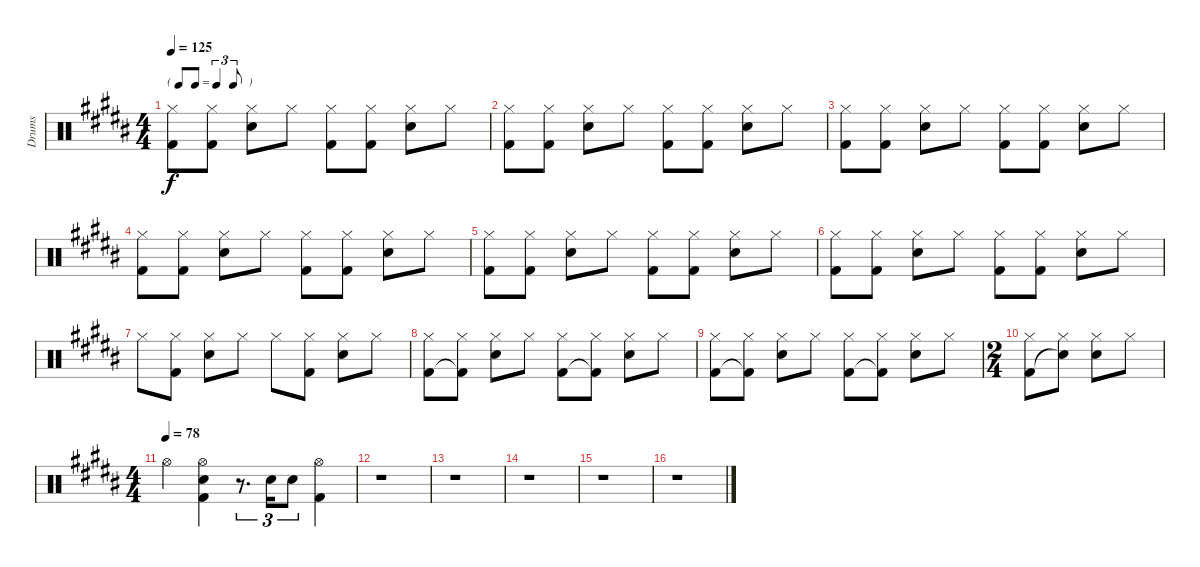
\track ("Drums" "Drums") {instrument percussion}
\staff {score}
\articulation defaults
\ts (4 4)
\tf triplet8th
\tempo 125
\clef neutral
\ks b
("Hi-Hat (closed)" "Kick (hit) 2").8{dy f} ("Hi-Hat (closed)" "Kick (hit) 2").8 ("Hi-Hat (closed)" "Snare (hit) 2").8 "Hi-Hat (closed)".8 ("Hi-Hat (closed)" "Kick (hit) 2").8 ("Hi-Hat (closed)" "Kick (hit) 2").8 ("Hi-Hat (closed)" "Snare (hit) 2").8 "Hi-Hat (closed)".8 |
("Hi-Hat (closed)" "Kick (hit) 2").8 ("Hi-Hat (closed)" "Kick (hit) 2").8 ("Hi-Hat (closed)" "Snare (hit) 2").8 "Hi-Hat (closed)".8 ("Hi-Hat (closed)" "Kick (hit) 2").8 ("Hi-Hat (closed)" "Kick (hit) 2").8 ("Hi-Hat (closed)" "Snare (hit) 2").8 "Hi-Hat (closed)".8 |
("Hi-Hat (closed)" "Kick (hit) 2").8 ("Hi-Hat (closed)" "Kick (hit) 2").8 ("Hi-Hat (closed)" "Snare (hit) 2").8 "Hi-Hat (closed)".8 ("Hi-Hat (closed)" "Kick (hit) 2").8 ("Hi-Hat (closed)" "Kick (hit) 2").8 ("Hi-Hat (closed)" "Snare (hit) 2").8 "Hi-Hat (closed)".8 |
("Hi-Hat (closed)" "Kick (hit) 2").8 ("Hi-Hat (closed)" "Kick (hit) 2").8 ("Hi-Hat (closed)" "Snare (hit) 2").8 "Hi-Hat (closed)".8 ("Hi-Hat (closed)" "Kick (hit) 2").8 ("Hi-Hat (closed)" "Kick (hit) 2").8 ("Hi-Hat (closed)" "Snare (hit) 2").8 "Hi-Hat (closed)".8 |
("Hi-Hat (closed)" "Kick (hit) 2").8 ("Hi-Hat (closed)" "Kick (hit) 2").8 ("Hi-Hat (closed)" "Snare (hit) 2").8 "Hi-Hat (closed)".8 ("Hi-Hat (closed)" "Kick (hit) 2").8 ("Hi-Hat (closed)" "Kick (hit) 2").8 ("Hi-Hat (closed)" "Snare (hit) 2").8 "Hi-Hat (closed)".8 |
("Hi-Hat (closed)" "Kick (hit) 2").8 ("Hi-Hat (closed)" "Kick (hit) 2").8 ("Hi-Hat (closed)" "Snare (hit) 2").8 "Hi-Hat (closed)".8 ("Hi-Hat (closed)" "Kick (hit) 2").8 ("Hi-Hat (closed)" "Kick (hit) 2").8 ("Hi-Hat (closed)" "Snare (hit) 2").8 "Hi-Hat (closed)".8 |
"Hi-Hat (closed)".8 ("Hi-Hat (closed)" "Kick (hit) 2").8 ("Hi-Hat (closed)" "Snare (hit) 2").8 "Hi-Hat (closed)".8 "Hi-Hat (closed)".8 ("Hi-Hat (closed)" "Kick (hit) 2").8 ("Hi-Hat (closed)" "Snare (hit) 2").8 "Hi-Hat (closed)".8 |
("Hi-Hat (closed)" "Kick (hit) 2").8 ("Hi-Hat (closed)" "Kick (hit) 2"{t}).8 ("Hi-Hat (closed)" "Snare (hit) 2").8 "Hi-Hat (closed)".8 ("Hi-Hat (closed)" "Kick (hit) 2").8 ("Hi-Hat (closed)" "Kick (hit) 2"{t}).8 ("Hi-Hat (closed)" "Snare (hit) 2").8 "Hi-Hat (closed)".8 |
("Hi-Hat (closed)" "Kick (hit) 2").8 ("Hi-Hat (closed)" "Kick (hit) 2"{t}).8 ("Hi-Hat (closed)" "Snare (hit) 2").8 "Hi-Hat (closed)".8 ("Hi-Hat (closed)" "Kick (hit) 2").8 ("Hi-Hat (closed)" "Kick (hit) 2"{t}).8 ("Hi-Hat (closed)" "Snare (hit) 2").8 "Hi-Hat (closed)".8 |
\ts (2 4)
("Hi-Hat (closed)" "Kick (hit) 2").8 ("Hi-Hat (closed)" "Snare (hit)"{t}).8 ("Hi-Hat (closed)" "Snare (hit) 2").8 "Hi-Hat (closed)".8 |
\ts (4 4)
\tempo (78)
"Hi-Hat (open)".4 ("Hi-Hat (open)" "Snare (hit) 2" "Kick (hit) 2").4 r.8{d tu (3 2)} "Snare (hit) 2".16{tu (3 2)} "Snare (hit) 2".8{tu (3 2)} ("Hi-Hat (open)" "Kick (hit) 2").4 |
r.1 |
r.1 |
r.1 |
r.1 |
r.1
